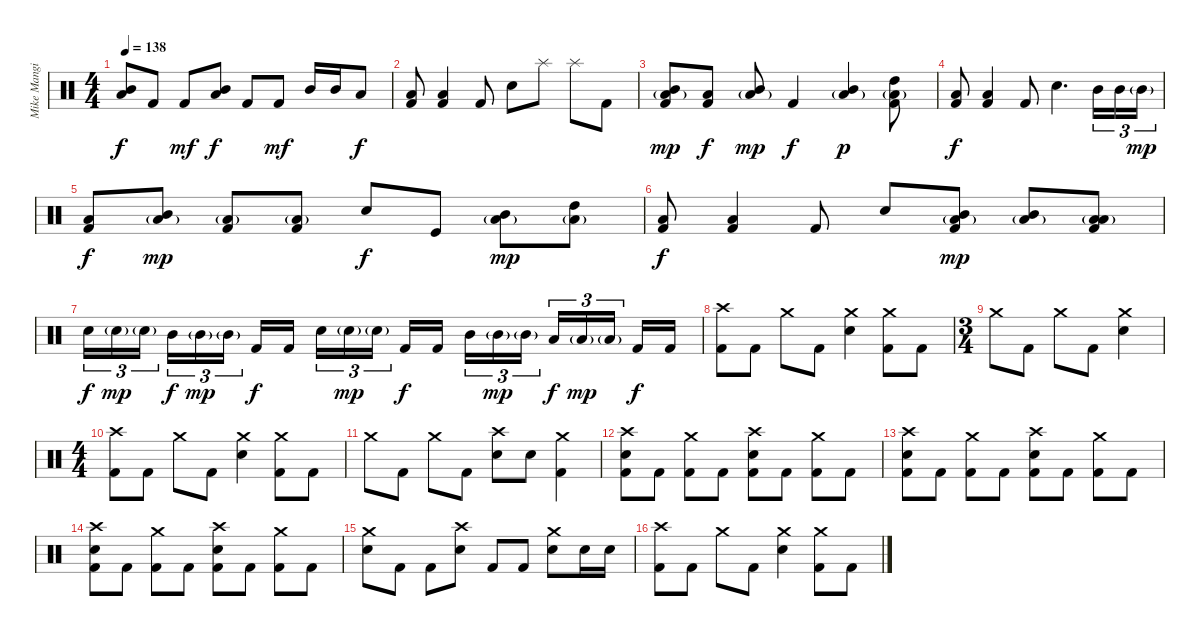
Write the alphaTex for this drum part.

\track ("Mike Mangini" "Mike Mangi") {instrument percussion}
\staff {score}
\articulation defaults
\ts (4 4)
\tempo 138
\clef neutral
\ks c
("Mid Tom (hit)" "Low Tom (hit)").8{dy f} "Kick (hit) 2".8 "Kick (hit) 2".8{dy mf} ("Mid Tom (hit)" "Low Tom (hit)").8{dy f} "Kick (hit) 2".8 "Kick (hit) 2".8{dy mf} "Mid Tom (hit)".16 "Mid Tom (hit)".16 "Low Tom (hit)".8{dy f} |
("Low Tom (hit)" "Kick (hit) 2").8 ("Low Tom (hit)" "Kick (hit) 2").4 "Kick (hit) 2".8 "Electric Snare (hit)".8 "Splash (hit)".8{balance 3} "Splash (hit)".8{balance 13} "Kick (hit) 2".8{balance 8} |
("Mid Tom (hit)" "Low Tom (hit)"{g} "Kick (hit) 2").8{dy mp} ("Low Tom (hit)" "Kick (hit) 2").8{dy f} ("Mid Tom (hit)" "Low Tom (hit)"{g}).8{dy mp} "Kick (hit) 2".4{dy f} ("Mid Tom (hit)" "Low Tom (hit)"{g}).4{dy p} ("High Tom (hit)" "Low Tom (hit)"{g} "Kick (hit) 2").8 |
("Low Tom (hit)" "Kick (hit) 2").8{dy f} ("Low Tom (hit)" "Kick (hit) 2").4 "Kick (hit) 2".8 "Electric Snare (hit)".4{d} "Mid Tom (hit)".16{tu (3 2)} "Mid Tom (hit)".16{tu (3 2)} "Mid Tom (hit)"{g}.16{tu (3 2) dy mp} |
("Low Tom (hit)" "Kick (hit) 2").8{dy f} ("Mid Tom (hit)" "Low Tom (hit)"{g}).8{dy mp} ("Low Tom (hit)"{g} "Kick (hit) 2").8 ("Low Tom (hit)"{g} "Kick (hit) 2").8 "Electric Snare (hit)".8{dy f} "Kick (hit)".8 ("Mid Tom (hit)" "Low Tom (hit)"{g}).8{dy mp} ("High Tom (hit)" "Low Tom (hit)"{g}).8 |
("Low Tom (hit)" "Kick (hit) 2").8{dy f} ("Low Tom (hit)" "Kick (hit) 2").4 "Kick (hit) 2".8 "Electric Snare (hit)".8 ("Mid Tom (hit)" "Low Tom (hit)"{g} "Kick (hit) 2").8{dy mp} ("Mid Tom (hit)" "Low Tom (hit)"{g}).8 ("Low Tom (hit)" "Low Tom (hit)"{g} "Kick (hit) 2").8 |
"Electric Snare (hit)".16{tu (3 2) dy f} "Electric Snare (hit)"{g}.16{tu (3 2) dy mp} "Electric Snare (hit)"{g}.16{tu (3 2) beam splitsecondary} "Mid Tom (hit)".16{tu (3 2) dy f} "Mid Tom (hit)"{g}.16{tu (3 2) dy mp} "Mid Tom (hit)"{g}.16{tu (3 2)} "Kick (hit) 2".16{dy f} "Kick (hit) 2".16{beam splitsecondary} "Electric Snare (hit)".16{tu (3 2)} "Electric Snare (hit)"{g}.16{tu (3 2) dy mp} "Electric Snare (hit)"{g}.16{tu (3 2)} "Kick (hit) 2".16{dy f} "Kick (hit) 2".16{beam splitsecondary} "Mid Tom (hit)".16{tu (3 2)} "Mid Tom (hit)"{g}.16{tu (3 2) dy mp} "Mid Tom (hit)"{g}.16{tu (3 2)} "Low Tom (hit)".16{tu (3 2) dy f} "Low Tom (hit)"{g}.16{tu (3 2) dy mp} "Low Tom (hit)"{g}.16{tu (3 2) beam splitsecondary} "Kick (hit) 2".16{dy f} "Kick (hit) 2".16 |
("Crash high (hit)" "Kick (hit) 2").8 "Kick (hit) 2".8 "Crash medium (hit)".8 "Kick (hit) 2".8 ("Crash medium (hit)" "Electric Snare (hit)").4 ("Crash medium (hit)" "Kick (hit) 2").8 "Kick (hit) 2".8 |
\ts (3 4)
"Crash medium (hit)".8 "Kick (hit) 2".8 "Crash medium (hit)".8 "Kick (hit) 2".8 ("Crash medium (hit)" "Electric Snare (hit)").4 |
\ts (4 4)
("Crash high (hit)" "Kick (hit) 2").8 "Kick (hit) 2".8 "Crash medium (hit)".8 "Kick (hit) 2".8 ("Crash medium (hit)" "Electric Snare (hit)").4 ("Crash medium (hit)" "Kick (hit) 2").8 "Kick (hit) 2".8 |
"Crash medium (hit)".8 "Kick (hit) 2".8 "Crash medium (hit)".8 "Kick (hit) 2".8 ("Crash high (hit)" "Electric Snare (hit)").8 "Electric Snare (hit)".8 ("Crash medium (hit)" "Kick (hit) 2").4 |
("Crash high (hit)" "Electric Snare (hit)" "Kick (hit) 2").8 "Kick (hit) 2".8 ("Crash medium (hit)" "Kick (hit) 2").8 "Kick (hit) 2".8 ("Crash high (hit)" "Electric Snare (hit)" "Kick (hit) 2").8 "Kick (hit) 2".8 ("Crash medium (hit)" "Kick (hit) 2").8 "Kick (hit) 2".8 |
("Crash high (hit)" "Electric Snare (hit)" "Kick (hit) 2").8 "Kick (hit) 2".8 ("Crash medium (hit)" "Kick (hit) 2").8 "Kick (hit) 2".8 ("Crash high (hit)" "Electric Snare (hit)" "Kick (hit) 2").8 "Kick (hit) 2".8 ("Crash medium (hit)" "Kick (hit) 2").8 "Kick (hit) 2".8 |
("Crash high (hit)" "Electric Snare (hit)" "Kick (hit) 2").8 "Kick (hit) 2".8 ("Crash medium (hit)" "Kick (hit) 2").8 "Kick (hit) 2".8 ("Crash high (hit)" "Electric Snare (hit)" "Kick (hit) 2").8 "Kick (hit) 2".8 ("Crash medium (hit)" "Kick (hit) 2").8 "Kick (hit) 2".8 |
("Crash medium (hit)" "Electric Snare (hit)").8 "Kick (hit) 2".8 "Kick (hit) 2".8 ("Crash high (hit)" "Electric Snare (hit)").8 "Kick (hit) 2".8 "Kick (hit) 2".8 ("Crash medium (hit)" "Electric Snare (hit)").8 "Electric Snare (hit)".16 "Electric Snare (hit)".16 |
("Crash high (hit)" "Kick (hit) 2").8 "Kick (hit) 2".8 "Crash medium (hit)".8 "Kick (hit) 2".8 ("Crash medium (hit)" "Electric Snare (hit)").4 ("Crash medium (hit)" "Kick (hit) 2").8 "Kick (hit) 2".8
